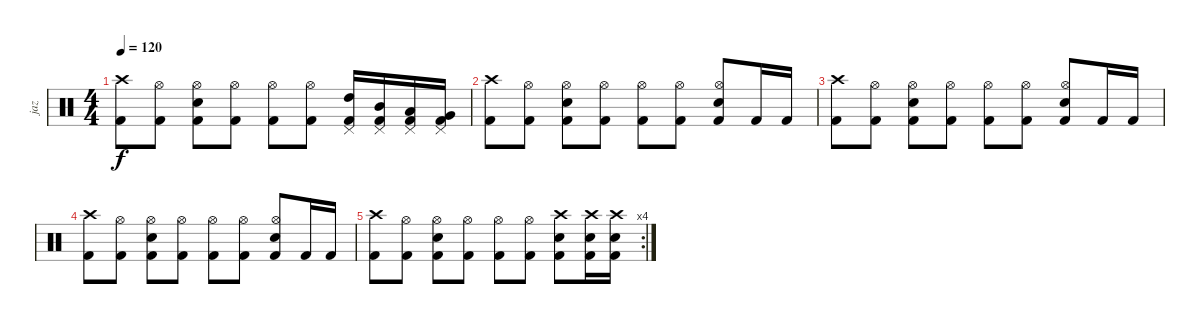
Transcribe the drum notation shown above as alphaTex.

\track ("jaz" "jaz") {instrument percussion}
\staff {score}
\articulation defaults
\ts (4 4)
\tempo 120
\clef neutral
\ks c
("Crash high (hit)" "Kick (hit) 2").8{dy f} ("Hi-Hat (open)" "Kick (hit) 2").8 ("Hi-Hat (open)" "Electric Snare (hit)" "Kick (hit) 2").8 ("Hi-Hat (open)" "Kick (hit) 2").8 ("Hi-Hat (open)" "Kick (hit) 2").8 ("Hi-Hat (open)" "Kick (hit) 2").8 ("Pedal Hi-Hat (hit)" "High Tom (hit)" "Kick (hit) 2").16 ("Pedal Hi-Hat (hit)" "Mid Tom (hit)" "Kick (hit) 2").16 ("Pedal Hi-Hat (hit)" "Low Tom (hit)" "Kick (hit) 2").16 ("Pedal Hi-Hat (hit)" "Very Low Tom (hit)" "Kick (hit) 2").16 |
("Crash high (hit)" "Kick (hit) 2").8 ("Hi-Hat (open)" "Kick (hit) 2").8 ("Hi-Hat (open)" "Electric Snare (hit)" "Kick (hit) 2").8 ("Hi-Hat (open)" "Kick (hit) 2").8 ("Hi-Hat (open)" "Kick (hit) 2").8 ("Hi-Hat (open)" "Kick (hit) 2").8 ("Hi-Hat (open)" "Electric Snare (hit)" "Kick (hit) 2").8 "Kick (hit) 2".16 "Kick (hit) 2".16 |
("Crash high (hit)" "Kick (hit) 2").8 ("Hi-Hat (open)" "Kick (hit) 2").8 ("Hi-Hat (open)" "Electric Snare (hit)" "Kick (hit) 2").8 ("Hi-Hat (open)" "Kick (hit) 2").8 ("Hi-Hat (open)" "Kick (hit) 2").8 ("Hi-Hat (open)" "Kick (hit) 2").8 ("Hi-Hat (open)" "Electric Snare (hit)" "Kick (hit) 2").8 "Kick (hit) 2".16 "Kick (hit) 2".16 |
("Crash high (hit)" "Kick (hit) 2").8 ("Hi-Hat (open)" "Kick (hit) 2").8 ("Hi-Hat (open)" "Electric Snare (hit)" "Kick (hit) 2").8 ("Hi-Hat (open)" "Kick (hit) 2").8 ("Hi-Hat (open)" "Kick (hit) 2").8 ("Hi-Hat (open)" "Kick (hit) 2").8 ("Hi-Hat (open)" "Electric Snare (hit)" "Kick (hit) 2").8 "Kick (hit) 2".16 "Kick (hit) 2".16 |
\rc 4
("Crash high (hit)" "Kick (hit) 2").8 ("Hi-Hat (open)" "Kick (hit) 2").8 ("Hi-Hat (open)" "Electric Snare (hit)" "Kick (hit) 2").8 ("Hi-Hat (open)" "Kick (hit) 2").8 ("Hi-Hat (open)" "Kick (hit) 2").8 ("Hi-Hat (open)" "Kick (hit) 2").8 ("Crash high (hit)" "Electric Snare (hit)" "Kick (hit) 2").8 ("Crash high (hit)" "Electric Snare (hit)" "Kick (hit) 2").16 ("Crash high (hit)" "Electric Snare (hit)" "Kick (hit) 2").16
